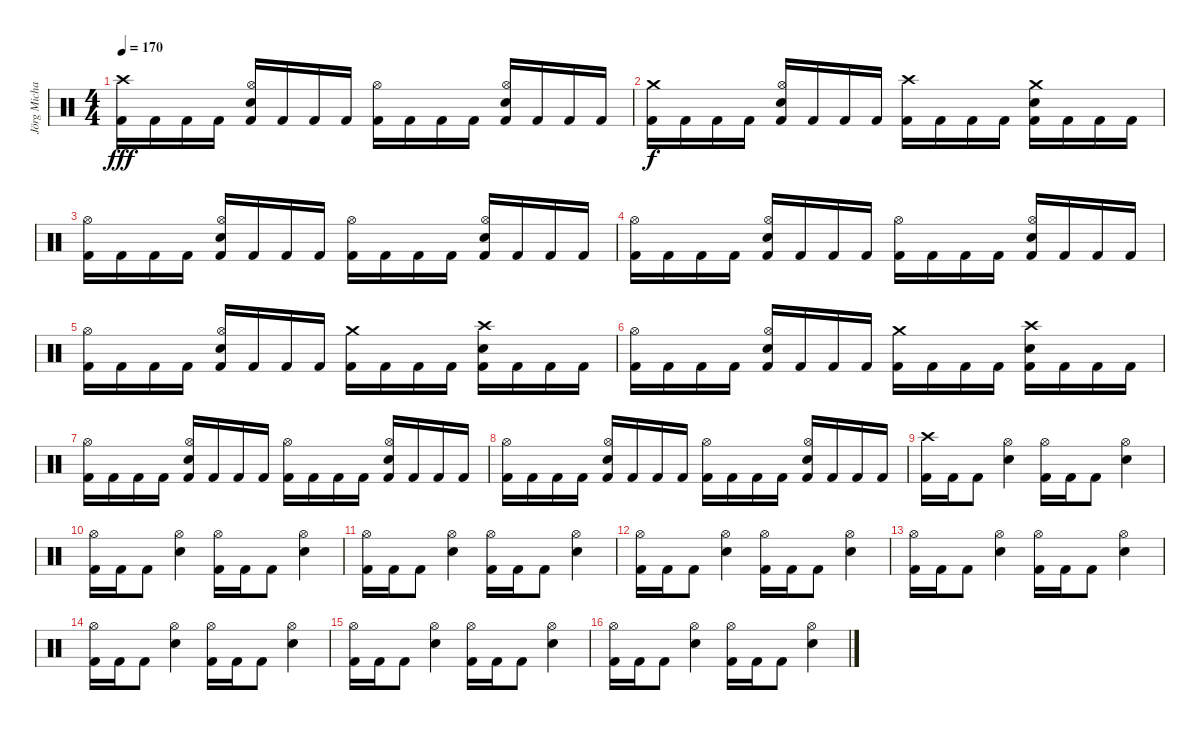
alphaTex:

\track ("Jörg Michael" "Jörg Micha") {instrument percussion}
\staff {score}
\articulation defaults
\ts (4 4)
\tempo 170
\clef neutral
\ks c
("Crash high (hit)" "Kick (hit) 2").16{dy fff} "Kick (hit) 2".16 "Kick (hit) 2".16 "Kick (hit) 2".16 ("Hi-Hat (open)" "Snare (hit) 2" "Kick (hit) 2").16 "Kick (hit) 2".16 "Kick (hit) 2".16 "Kick (hit) 2".16 ("Hi-Hat (open)" "Kick (hit) 2").16 "Kick (hit) 2".16 "Kick (hit) 2".16 "Kick (hit) 2".16 ("Hi-Hat (open)" "Snare (hit) 2" "Kick (hit) 2").16 "Kick (hit) 2".16 "Kick (hit) 2".16 "Kick (hit) 2".16 |
("Crash medium (hit)" "Kick (hit) 2").16{dy f} "Kick (hit) 2".16 "Kick (hit) 2".16 "Kick (hit) 2".16 ("Hi-Hat (open)" "Snare (hit) 2" "Kick (hit) 2").16 "Kick (hit) 2".16 "Kick (hit) 2".16 "Kick (hit) 2".16 ("Crash high (hit)" "Kick (hit) 2").16 "Kick (hit) 2".16 "Kick (hit) 2".16 "Kick (hit) 2".16 ("Crash medium (hit)" "Snare (hit) 2" "Kick (hit) 2").16 "Kick (hit) 2".16 "Kick (hit) 2".16 "Kick (hit) 2".16 |
("Hi-Hat (open)" "Kick (hit) 2").16 "Kick (hit) 2".16 "Kick (hit) 2".16 "Kick (hit) 2".16 ("Hi-Hat (open)" "Snare (hit) 2" "Kick (hit) 2").16 "Kick (hit) 2".16 "Kick (hit) 2".16 "Kick (hit) 2".16 ("Hi-Hat (open)" "Kick (hit) 2").16 "Kick (hit) 2".16 "Kick (hit) 2".16 "Kick (hit) 2".16 ("Hi-Hat (open)" "Snare (hit) 2" "Kick (hit) 2").16 "Kick (hit) 2".16 "Kick (hit) 2".16 "Kick (hit) 2".16 |
("Hi-Hat (open)" "Kick (hit) 2").16 "Kick (hit) 2".16 "Kick (hit) 2".16 "Kick (hit) 2".16 ("Hi-Hat (open)" "Snare (hit) 2" "Kick (hit) 2").16 "Kick (hit) 2".16 "Kick (hit) 2".16 "Kick (hit) 2".16 ("Hi-Hat (open)" "Kick (hit) 2").16 "Kick (hit) 2".16 "Kick (hit) 2".16 "Kick (hit) 2".16 ("Hi-Hat (open)" "Snare (hit) 2" "Kick (hit) 2").16 "Kick (hit) 2".16 "Kick (hit) 2".16 "Kick (hit) 2".16 |
("Hi-Hat (open)" "Kick (hit) 2").16 "Kick (hit) 2".16 "Kick (hit) 2".16 "Kick (hit) 2".16 ("Hi-Hat (open)" "Snare (hit) 2" "Kick (hit) 2").16 "Kick (hit) 2".16 "Kick (hit) 2".16 "Kick (hit) 2".16 ("Crash medium (hit)" "Kick (hit) 2").16 "Kick (hit) 2".16 "Kick (hit) 2".16 "Kick (hit) 2".16 ("Crash high (hit)" "Snare (hit) 2" "Kick (hit) 2").16 "Kick (hit) 2".16 "Kick (hit) 2".16 "Kick (hit) 2".16 |
("Hi-Hat (open)" "Kick (hit) 2").16 "Kick (hit) 2".16 "Kick (hit) 2".16 "Kick (hit) 2".16 ("Hi-Hat (open)" "Snare (hit) 2" "Kick (hit) 2").16 "Kick (hit) 2".16 "Kick (hit) 2".16 "Kick (hit) 2".16 ("Crash medium (hit)" "Kick (hit) 2").16 "Kick (hit) 2".16 "Kick (hit) 2".16 "Kick (hit) 2".16 ("Crash high (hit)" "Snare (hit) 2" "Kick (hit) 2").16 "Kick (hit) 2".16 "Kick (hit) 2".16 "Kick (hit) 2".16 |
("Hi-Hat (open)" "Kick (hit) 2").16 "Kick (hit) 2".16 "Kick (hit) 2".16 "Kick (hit) 2".16 ("Hi-Hat (open)" "Snare (hit) 2" "Kick (hit) 2").16 "Kick (hit) 2".16 "Kick (hit) 2".16 "Kick (hit) 2".16 ("Hi-Hat (open)" "Kick (hit) 2").16 "Kick (hit) 2".16 "Kick (hit) 2".16 "Kick (hit) 2".16 ("Hi-Hat (open)" "Snare (hit) 2" "Kick (hit) 2").16 "Kick (hit) 2".16 "Kick (hit) 2".16 "Kick (hit) 2".16 |
("Hi-Hat (open)" "Kick (hit) 2").16 "Kick (hit) 2".16 "Kick (hit) 2".16 "Kick (hit) 2".16 ("Hi-Hat (open)" "Snare (hit) 2" "Kick (hit) 2").16 "Kick (hit) 2".16 "Kick (hit) 2".16 "Kick (hit) 2".16 ("Hi-Hat (open)" "Kick (hit) 2").16 "Kick (hit) 2".16 "Kick (hit) 2".16 "Kick (hit) 2".16 ("Hi-Hat (open)" "Snare (hit) 2" "Kick (hit) 2").16 "Kick (hit) 2".16 "Kick (hit) 2".16 "Kick (hit) 2".16 |
("Crash high (hit)" "Kick (hit) 2").16 "Kick (hit) 2".16 "Kick (hit) 2".8 ("Hi-Hat (open)" "Snare (hit) 2").4 ("Hi-Hat (open)" "Kick (hit) 2").16 "Kick (hit) 2".16 "Kick (hit) 2".8 ("Hi-Hat (open)" "Snare (hit) 2").4 |
("Hi-Hat (open)" "Kick (hit) 2").16 "Kick (hit) 2".16 "Kick (hit) 2".8 ("Hi-Hat (open)" "Snare (hit) 2").4 ("Hi-Hat (open)" "Kick (hit) 2").16 "Kick (hit) 2".16 "Kick (hit) 2".8 ("Hi-Hat (open)" "Snare (hit) 2").4 |
("Hi-Hat (open)" "Kick (hit) 2").16 "Kick (hit) 2".16 "Kick (hit) 2".8 ("Hi-Hat (open)" "Snare (hit) 2").4 ("Hi-Hat (open)" "Kick (hit) 2").16 "Kick (hit) 2".16 "Kick (hit) 2".8 ("Hi-Hat (open)" "Snare (hit) 2").4 |
("Hi-Hat (open)" "Kick (hit) 2").16 "Kick (hit) 2".16 "Kick (hit) 2".8 ("Hi-Hat (open)" "Snare (hit) 2").4 ("Hi-Hat (open)" "Kick (hit) 2").16 "Kick (hit) 2".16 "Kick (hit) 2".8 ("Hi-Hat (open)" "Snare (hit) 2").4 |
("Hi-Hat (open)" "Kick (hit) 2").16 "Kick (hit) 2".16 "Kick (hit) 2".8 ("Hi-Hat (open)" "Snare (hit) 2").4 ("Hi-Hat (open)" "Kick (hit) 2").16 "Kick (hit) 2".16 "Kick (hit) 2".8 ("Hi-Hat (open)" "Snare (hit) 2").4 |
("Hi-Hat (open)" "Kick (hit) 2").16 "Kick (hit) 2".16 "Kick (hit) 2".8 ("Hi-Hat (open)" "Snare (hit) 2").4 ("Hi-Hat (open)" "Kick (hit) 2").16 "Kick (hit) 2".16 "Kick (hit) 2".8 ("Hi-Hat (open)" "Snare (hit) 2").4 |
("Hi-Hat (open)" "Kick (hit) 2").16 "Kick (hit) 2".16 "Kick (hit) 2".8 ("Hi-Hat (open)" "Snare (hit) 2").4 ("Hi-Hat (open)" "Kick (hit) 2").16 "Kick (hit) 2".16 "Kick (hit) 2".8 ("Hi-Hat (open)" "Snare (hit) 2").4 |
("Hi-Hat (open)" "Kick (hit) 2").16 "Kick (hit) 2".16 "Kick (hit) 2".8 ("Hi-Hat (open)" "Snare (hit) 2").4 ("Hi-Hat (open)" "Kick (hit) 2").16 "Kick (hit) 2".16 "Kick (hit) 2".8 ("Hi-Hat (open)" "Snare (hit) 2").4
